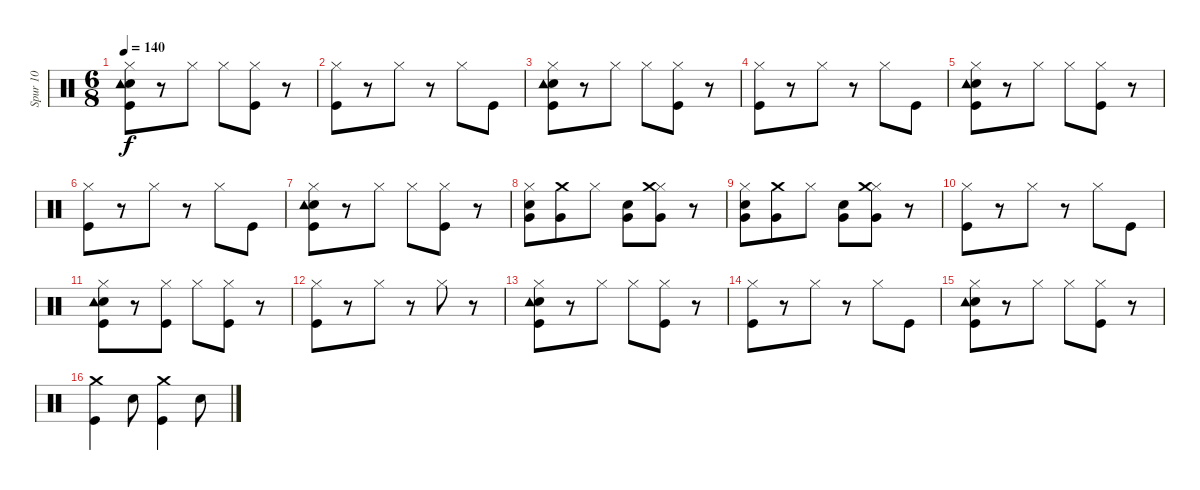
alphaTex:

\track ("Spur 10" "Spur 10") {instrument percussion}
\staff {score}
\articulation defaults
\ts (6 8)
\tempo 140
\clef neutral
\ks c
("Kick (hit)" "Snare (hit) 2" "Tambourine (hit)" "Hi-Hat (closed)").8{dy f} r.8 "Hi-Hat (closed)".8 "Hi-Hat (closed)".8 ("Kick (hit)" "Hi-Hat (closed)").8 r.8 |
("Kick (hit)" "Hi-Hat (closed)").8 r.8 "Hi-Hat (closed)".8 r.8 "Hi-Hat (closed)".8 "Kick (hit)".8 |
("Kick (hit)" "Snare (hit) 2" "Tambourine (hit)" "Hi-Hat (closed)").8 r.8 "Hi-Hat (closed)".8 "Hi-Hat (closed)".8 ("Kick (hit)" "Hi-Hat (closed)").8 r.8 |
("Kick (hit)" "Hi-Hat (closed)").8 r.8 "Hi-Hat (closed)".8 r.8 "Hi-Hat (closed)".8 "Kick (hit)".8 |
("Kick (hit)" "Snare (hit) 2" "Tambourine (hit)" "Hi-Hat (closed)").8 r.8 "Hi-Hat (closed)".8 "Hi-Hat (closed)".8 ("Kick (hit)" "Hi-Hat (closed)").8 r.8 |
("Kick (hit)" "Hi-Hat (closed)").8 r.8 "Hi-Hat (closed)".8 r.8 "Hi-Hat (closed)".8 "Kick (hit)".8 |
("Kick (hit)" "Snare (hit) 2" "Tambourine (hit)" "Hi-Hat (closed)").8 r.8 "Hi-Hat (closed)".8 "Hi-Hat (closed)".8 ("Kick (hit)" "Hi-Hat (closed)").8 r.8 |
("Hi-Hat (closed)" "Snare (hit) 2" "Very Low Tom (hit)").8 ("Crash medium (hit)" "Very Low Tom (hit)").8 "Hi-Hat (closed)".8 ("Snare (hit) 2" "Very Low Tom (hit)").8 ("Hi-Hat (closed)" "Crash medium (hit)" "Very Low Tom (hit)").8 r.8 |
("Snare (hit) 2" "Hi-Hat (closed)" "Very Low Tom (hit)").8 ("Crash medium (hit)" "Very Low Tom (hit)").8 "Hi-Hat (closed)".8 ("Snare (hit) 2" "Very Low Tom (hit)").8 ("Hi-Hat (closed)" "Crash medium (hit)" "Very Low Tom (hit)").8 r.8 |
("Kick (hit)" "Hi-Hat (closed)").8 r.8 "Hi-Hat (closed)".8 r.8 "Hi-Hat (closed)".8 "Kick (hit)".8 |
("Kick (hit)" "Snare (hit) 2" "Tambourine (hit)" "Hi-Hat (closed)").8 r.8 ("Kick (hit)" "Hi-Hat (closed)").8 "Hi-Hat (closed)".8 ("Kick (hit)" "Hi-Hat (closed)").8 r.8 |
("Kick (hit)" "Hi-Hat (closed)").8 r.8 "Hi-Hat (closed)".8 r.8 "Hi-Hat (closed)".8 r.8 |
("Kick (hit)" "Snare (hit) 2" "Tambourine (hit)" "Hi-Hat (closed)").8 r.8 "Hi-Hat (closed)".8 "Hi-Hat (closed)".8 ("Kick (hit)" "Hi-Hat (closed)").8 r.8 |
("Kick (hit)" "Hi-Hat (closed)").8 r.8 "Hi-Hat (closed)".8 r.8 "Hi-Hat (closed)".8 "Kick (hit)".8 |
("Kick (hit)" "Snare (hit) 2" "Tambourine (hit)" "Hi-Hat (closed)").8 r.8 "Hi-Hat (closed)".8 "Hi-Hat (closed)".8 ("Kick (hit)" "Hi-Hat (closed)").8 r.8 |
("Kick (hit)" "Crash medium (hit)").4 "Snare (hit) 2".8 ("Kick (hit)" "Crash medium (hit)").4 "Snare (hit) 2".8
